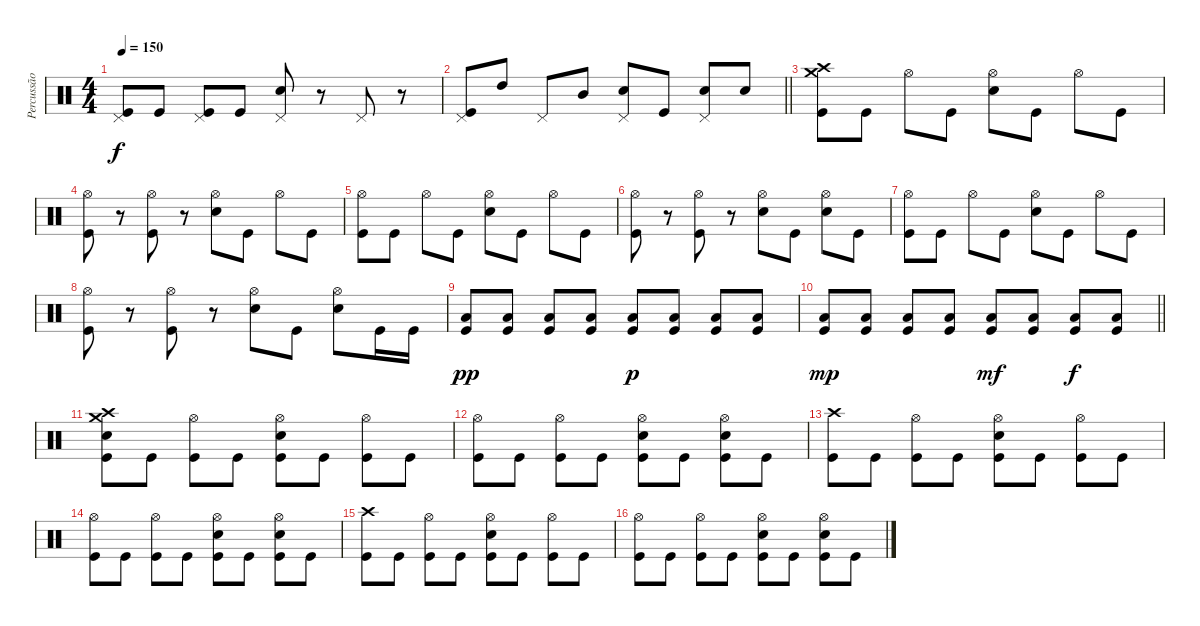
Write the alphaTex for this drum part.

\track ("Percussão" "Percussão") {instrument percussion}
\staff {score}
\articulation defaults
\ts (4 4)
\tempo 150
\clef neutral
\ks c
("Pedal Hi-Hat (hit)" "Kick (hit)").8{dy f} "Kick (hit)".8 ("Pedal Hi-Hat (hit)" "Kick (hit)").8 "Kick (hit)".8 ("Pedal Hi-Hat (hit)" "Snare (hit) 2").8 r.8 "Pedal Hi-Hat (hit)".8 r.8 |
\barLineRight lightlight
("Pedal Hi-Hat (hit)" "Kick (hit)").8 "High Tom (hit)".8 "Pedal Hi-Hat (hit)".8 "Mid Tom (hit)".8 ("Pedal Hi-Hat (hit)" "Snare (hit) 2").8 "Kick (hit)".8 ("Pedal Hi-Hat (hit)" "Snare (hit) 2").8 "Snare (hit) 2".8 |
("Crash high (hit)" "Crash medium (hit)" "Kick (hit)").8 "Kick (hit)".8 "Hi-Hat (open)".8 "Kick (hit)".8 ("Hi-Hat (open)" "Snare (hit) 2").8 "Kick (hit)".8 "Hi-Hat (open)".8 "Kick (hit)".8 |
("Hi-Hat (open)" "Kick (hit)").8 r.8 ("Hi-Hat (open)" "Kick (hit)").8 r.8 ("Hi-Hat (open)" "Snare (hit) 2").8 "Kick (hit)".8 "Hi-Hat (open)".8 "Kick (hit)".8 |
("Hi-Hat (open)" "Kick (hit)").8 "Kick (hit)".8 "Hi-Hat (open)".8 "Kick (hit)".8 ("Hi-Hat (open)" "Snare (hit) 2").8 "Kick (hit)".8 "Hi-Hat (open)".8 "Kick (hit)".8 |
("Hi-Hat (open)" "Kick (hit)").8 r.8 ("Hi-Hat (open)" "Kick (hit)").8 r.8 ("Hi-Hat (open)" "Snare (hit) 2").8 "Kick (hit)".8 ("Hi-Hat (open)" "Snare (hit) 2").8 "Kick (hit)".8 |
("Hi-Hat (open)" "Kick (hit)").8 "Kick (hit)".8 "Hi-Hat (open)".8 "Kick (hit)".8 ("Hi-Hat (open)" "Snare (hit) 2").8 "Kick (hit)".8 "Hi-Hat (open)".8 "Kick (hit)".8 |
("Hi-Hat (open)" "Kick (hit)").8 r.8 ("Hi-Hat (open)" "Kick (hit)").8 r.8 ("Hi-Hat (open)" "Snare (hit) 2").8 "Kick (hit)".8 ("Hi-Hat (open)" "Snare (hit) 2").8 "Kick (hit)".16 "Kick (hit)".16 |
("Low Floor Tom (hit)" "Kick (hit)").8{dy pp} ("Low Floor Tom (hit)" "Kick (hit)").8 ("Low Floor Tom (hit)" "Kick (hit)").8 ("Low Floor Tom (hit)" "Kick (hit)").8 ("Low Floor Tom (hit)" "Kick (hit)").8{dy p} ("Low Floor Tom (hit)" "Kick (hit)").8 ("Low Floor Tom (hit)" "Kick (hit)").8 ("Low Floor Tom (hit)" "Kick (hit)").8 |
\barLineRight lightlight
("Low Floor Tom (hit)" "Kick (hit)").8{dy mp} ("Low Floor Tom (hit)" "Kick (hit)").8 ("Low Floor Tom (hit)" "Kick (hit)").8 ("Low Floor Tom (hit)" "Kick (hit)").8 ("Low Floor Tom (hit)" "Kick (hit)").8{dy mf} ("Low Floor Tom (hit)" "Kick (hit)").8 ("Low Floor Tom (hit)" "Kick (hit)").8{dy f} ("Low Floor Tom (hit)" "Kick (hit)").8 |
("Crash high (hit)" "Crash medium (hit)" "Snare (hit) 2" "Kick (hit)").8 "Kick (hit)".8 ("Hi-Hat (open)" "Kick (hit)").8 "Kick (hit)".8 ("Hi-Hat (open)" "Snare (hit) 2" "Kick (hit)").8 "Kick (hit)".8 ("Hi-Hat (open)" "Kick (hit)").8 "Kick (hit)".8 |
("Hi-Hat (open)" "Kick (hit)").8 "Kick (hit)".8 ("Hi-Hat (open)" "Kick (hit)").8 "Kick (hit)".8 ("Hi-Hat (open)" "Snare (hit) 2" "Kick (hit)").8 "Kick (hit)".8 ("Hi-Hat (open)" "Snare (hit) 2" "Kick (hit)").8 "Kick (hit)".8 |
("Crash high (hit)" "Kick (hit)").8 "Kick (hit)".8 ("Hi-Hat (open)" "Kick (hit)").8 "Kick (hit)".8 ("Hi-Hat (open)" "Snare (hit) 2" "Kick (hit)").8 "Kick (hit)".8 ("Hi-Hat (open)" "Kick (hit)").8 "Kick (hit)".8 |
("Hi-Hat (open)" "Kick (hit)").8 "Kick (hit)".8 ("Hi-Hat (open)" "Kick (hit)").8 "Kick (hit)".8 ("Hi-Hat (open)" "Snare (hit) 2" "Kick (hit)").8 "Kick (hit)".8 ("Hi-Hat (open)" "Snare (hit) 2" "Kick (hit)").8 "Kick (hit)".8 |
("Crash high (hit)" "Kick (hit)").8 "Kick (hit)".8 ("Hi-Hat (open)" "Kick (hit)").8 "Kick (hit)".8 ("Hi-Hat (open)" "Snare (hit) 2" "Kick (hit)").8 "Kick (hit)".8 ("Hi-Hat (open)" "Kick (hit)").8 "Kick (hit)".8 |
("Hi-Hat (open)" "Kick (hit)").8 "Kick (hit)".8 ("Hi-Hat (open)" "Kick (hit)").8 "Kick (hit)".8 ("Hi-Hat (open)" "Snare (hit) 2" "Kick (hit)").8 "Kick (hit)".8 ("Hi-Hat (open)" "Snare (hit) 2" "Kick (hit)").8 "Kick (hit)".8
